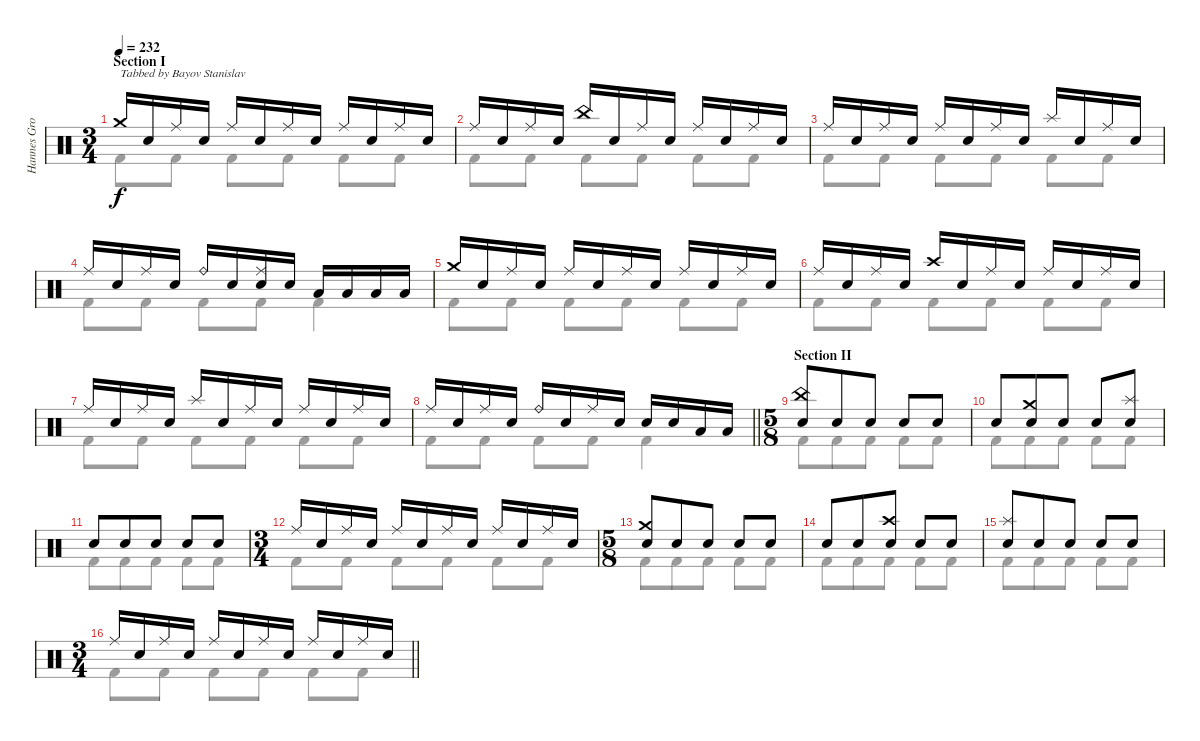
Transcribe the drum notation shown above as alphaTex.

\track ("Hannes Grossman" "Hannes Gro") {instrument percussion}
\staff {score}
\articulation defaults
\voice
\ts (3 4)
\section ("" "Section I")
\tempo 232
\clef neutral
\ks c "Crash medium (hit)".16{txt "Tabbed by Bayov Stanislav" dy f} "Electric Snare (hit)".16 "Ride (middle)".16 "Electric Snare (hit)".16 "Ride (middle)".16 "Electric Snare (hit)".16 "Ride (middle)".16 "Electric Snare (hit)".16 "Ride (middle)".16 "Electric Snare (hit)".16 "Ride (middle)".16 "Electric Snare (hit)".16
|
"Ride (middle)".16 "Electric Snare (hit)".16 "Ride (middle)".16 "Electric Snare (hit)".16 "China (hit)".16 "Electric Snare (hit)".16 "Ride (middle)".16 "Electric Snare (hit)".16 "Ride (middle)".16 "Electric Snare (hit)".16 "Ride (middle)".16 "Electric Snare (hit)".16 |
"Ride (middle)".16 "Electric Snare (hit)".16 "Ride (middle)".16 "Electric Snare (hit)".16 "Ride (middle)".16 "Electric Snare (hit)".16 "Ride (middle)".16 "Electric Snare (hit)".16 "Splash (hit)".16 "Electric Snare (hit)".16 "Ride (middle)".16 "Electric Snare (hit)".16 |
"Ride (middle)".16 "Electric Snare (hit)".16 "Ride (middle)".16 "Electric Snare (hit)".16 "Ride (bell)".16 "Electric Snare (hit)".16 ("Electric Snare (hit)" "Ride (middle)").16 "Electric Snare (hit)".16 "Low Tom (hit)".16 "Low Tom (hit)".16 "Low Tom (hit)".16 "Low Tom (hit)".16 |
"Crash medium (hit)".16 "Electric Snare (hit)".16 "Ride (middle)".16 "Electric Snare (hit)".16 "Ride (middle)".16 "Electric Snare (hit)".16 "Ride (middle)".16 "Electric Snare (hit)".16 "Ride (middle)".16 "Electric Snare (hit)".16 "Ride (middle)".16 "Electric Snare (hit)".16 |
"Ride (middle)".16 "Electric Snare (hit)".16 "Ride (middle)".16 "Electric Snare (hit)".16 "Crash high (hit)".16 "Electric Snare (hit)".16 "Ride (middle)".16 "Electric Snare (hit)".16 "Ride (middle)".16 "Electric Snare (hit)".16 "Ride (middle)".16 "Electric Snare (hit)".16 |
"Ride (middle)".16 "Electric Snare (hit)".16 "Ride (middle)".16 "Electric Snare (hit)".16 "Splash (hit)".16 "Electric Snare (hit)".16 "Ride (middle)".16 "Electric Snare (hit)".16 "Ride (middle)".16 "Electric Snare (hit)".16 "Ride (middle)".16 "Electric Snare (hit)".16 |
\barLineRight lightlight "Ride (middle)".16 "Electric Snare (hit)".16 "Ride (middle)".16 "Electric Snare (hit)".16 "Ride (bell)".16 "Electric Snare (hit)".16 "Ride (middle)".16 "Electric Snare (hit)".16 "Electric Snare (hit)".16 "Electric Snare (hit)".16 "Low Tom (hit)".16 "Low Tom (hit)".16
|
\ts (5 8)
\section ("" "Section II")
("Electric Snare (hit)" "China (hit)").8 "Electric Snare (hit)".8 "Electric Snare (hit)".8 "Electric Snare (hit)".8 "Electric Snare (hit)".8 |
"Electric Snare (hit)".8 ("Electric Snare (hit)" "Crash medium (hit)").8 "Electric Snare (hit)".8 "Electric Snare (hit)".8 ("Electric Snare (hit)" "Splash (hit)").8 |
"Electric Snare (hit)".8 "Electric Snare (hit)".8 "Electric Snare (hit)".8 "Electric Snare (hit)".8 "Electric Snare (hit)".8 |
\ts (3 4)
"Ride (middle)".16 "Electric Snare (hit)".16 "Ride (middle)".16 "Electric Snare (hit)".16 "Ride (middle)".16 "Electric Snare (hit)".16 "Ride (middle)".16 "Electric Snare (hit)".16 "Ride (middle)".16 "Electric Snare (hit)".16 "Ride (middle)".16 "Electric Snare (hit)".16 |
\ts (5 8)
("Electric Snare (hit)" "Crash medium (hit)").8 "Electric Snare (hit)".8 "Electric Snare (hit)".8 "Electric Snare (hit)".8 "Electric Snare (hit)".8 |
"Electric Snare (hit)".8 "Electric Snare (hit)".8 ("Electric Snare (hit)" "Crash high (hit)").8 "Electric Snare (hit)".8 "Electric Snare (hit)".8 |
("Electric Snare (hit)" "Splash (hit)").8 "Electric Snare (hit)".8 "Electric Snare (hit)".8 "Electric Snare (hit)".8 "Electric Snare (hit)".8 |
\ts (3 4)
\barLineRight lightlight "Ride (middle)".16 "Electric Snare (hit)".16 "Ride (middle)".16 "Electric Snare (hit)".16 "Ride (middle)".16 "Electric Snare (hit)".16 "Ride (middle)".16 "Electric Snare (hit)".16 "Ride (middle)".16 "Electric Snare (hit)".16 "Ride (middle)".16 "Electric Snare (hit)".16
\voice
\clef neutral
\ottava regular
\simile none
\ks c "Kick (hit) 2".8{dy f} "Kick (hit) 2".8 "Kick (hit) 2".8 "Kick (hit) 2".8 "Kick (hit) 2".8 "Kick (hit) 2".8
|
"Kick (hit) 2".8 "Kick (hit) 2".8 "Kick (hit) 2".8 "Kick (hit) 2".8 "Kick (hit) 2".8 "Kick (hit) 2".8 |
"Kick (hit) 2".8 "Kick (hit) 2".8 "Kick (hit) 2".8 "Kick (hit) 2".8 "Kick (hit) 2".8 "Kick (hit) 2".8 |
"Kick (hit) 2".8 "Kick (hit) 2".8 "Kick (hit) 2".8 "Kick (hit) 2".8 "Kick (hit) 2".4 |
"Kick (hit) 2".8 "Kick (hit) 2".8 "Kick (hit) 2".8 "Kick (hit) 2".8 "Kick (hit) 2".8 "Kick (hit) 2".8 |
"Kick (hit) 2".8 "Kick (hit) 2".8 "Kick (hit) 2".8 "Kick (hit) 2".8 "Kick (hit) 2".8 "Kick (hit) 2".8 |
"Kick (hit) 2".8 "Kick (hit) 2".8 "Kick (hit) 2".8 "Kick (hit) 2".8 "Kick (hit) 2".8 "Kick (hit) 2".8 |
\barLineRight lightlight "Kick (hit) 2".8 "Kick (hit) 2".8 "Kick (hit) 2".8 "Kick (hit) 2".8 "Kick (hit) 2".4
|
"Kick (hit) 2".8 "Kick (hit) 2".8 "Kick (hit) 2".8 "Kick (hit) 2".8 "Kick (hit) 2".8 |
"Kick (hit) 2".8 "Kick (hit) 2".8 "Kick (hit) 2".8 "Kick (hit) 2".8 "Kick (hit) 2".8 |
"Kick (hit) 2".8 "Kick (hit) 2".8 "Kick (hit) 2".8 "Kick (hit) 2".8 "Kick (hit) 2".8 |
"Kick (hit) 2".8 "Kick (hit) 2".8 "Kick (hit) 2".8 "Kick (hit) 2".8 "Kick (hit) 2".8 "Kick (hit) 2".8 |
"Kick (hit) 2".8 "Kick (hit) 2".8 "Kick (hit) 2".8 "Kick (hit) 2".8 "Kick (hit) 2".8 |
"Kick (hit) 2".8 "Kick (hit) 2".8 "Kick (hit) 2".8 "Kick (hit) 2".8 "Kick (hit) 2".8 |
"Kick (hit) 2".8 "Kick (hit) 2".8 "Kick (hit) 2".8 "Kick (hit) 2".8 "Kick (hit) 2".8 |
\barLineRight lightlight "Kick (hit) 2".8 "Kick (hit) 2".8 "Kick (hit) 2".8 "Kick (hit) 2".8 "Kick (hit) 2".8 "Kick (hit) 2".8
